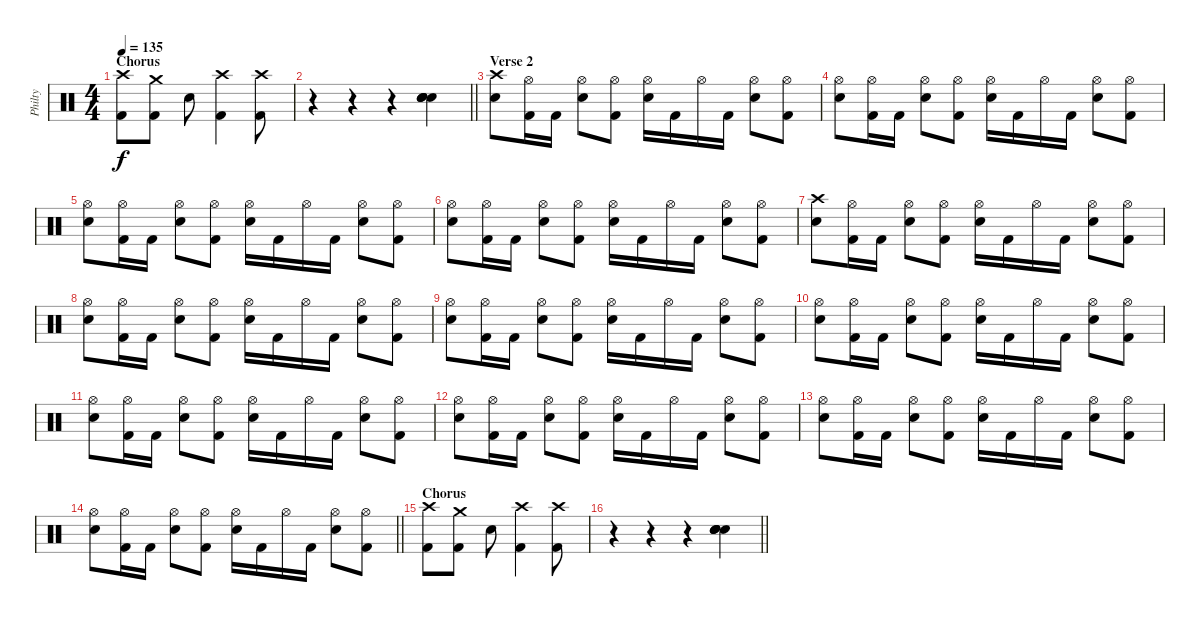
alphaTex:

\track ("Philty" "Philty") {instrument percussion}
\staff {score}
\articulation defaults
\ts (4 4)
\section ("" "Chorus")
\tempo 135
\clef neutral
\ks c
("Crash high (hit)" "Kick (hit) 2").8{dy f} ("Crash medium (hit)" "Kick (hit) 2").8 "Electric Snare (hit)".8 ("Crash high (hit)" "Kick (hit) 2").4 ("Crash high (hit)" "Kick (hit) 2").8 |
\barLineRight lightlight
r.4 r.4 r.4 ("Electric Snare (hit)" "Electric Snare (hit)" "Electric Snare (hit)" "Snare (hit) 2").4 |
\section ("" "Verse 2")
("Crash high (hit)" "Electric Snare (hit)").8 ("Hi-Hat (open)" "Kick (hit) 2").16 "Kick (hit) 2".16 ("Hi-Hat (open)" "Electric Snare (hit)").8 ("Hi-Hat (open)" "Kick (hit) 2").8 ("Hi-Hat (open)" "Electric Snare (hit)").16 "Kick (hit) 2".16 "Hi-Hat (open)".16 "Kick (hit) 2".16 ("Hi-Hat (open)" "Electric Snare (hit)").8 ("Hi-Hat (open)" "Kick (hit) 2").8 |
("Hi-Hat (open)" "Electric Snare (hit)").8 ("Hi-Hat (open)" "Kick (hit) 2").16 "Kick (hit) 2".16 ("Hi-Hat (open)" "Electric Snare (hit)").8 ("Hi-Hat (open)" "Kick (hit) 2").8 ("Hi-Hat (open)" "Electric Snare (hit)").16 "Kick (hit) 2".16 "Hi-Hat (open)".16 "Kick (hit) 2".16 ("Hi-Hat (open)" "Electric Snare (hit)").8 ("Hi-Hat (open)" "Kick (hit) 2").8 |
("Hi-Hat (open)" "Electric Snare (hit)").8 ("Hi-Hat (open)" "Kick (hit) 2").16 "Kick (hit) 2".16 ("Hi-Hat (open)" "Electric Snare (hit)").8 ("Hi-Hat (open)" "Kick (hit) 2").8 ("Hi-Hat (open)" "Electric Snare (hit)").16 "Kick (hit) 2".16 "Hi-Hat (open)".16 "Kick (hit) 2".16 ("Hi-Hat (open)" "Electric Snare (hit)").8 ("Hi-Hat (open)" "Kick (hit) 2").8 |
("Hi-Hat (open)" "Electric Snare (hit)").8 ("Hi-Hat (open)" "Kick (hit) 2").16 "Kick (hit) 2".16 ("Hi-Hat (open)" "Electric Snare (hit)").8 ("Hi-Hat (open)" "Kick (hit) 2").8 ("Hi-Hat (open)" "Electric Snare (hit)").16 "Kick (hit) 2".16 "Hi-Hat (open)".16 "Kick (hit) 2".16 ("Hi-Hat (open)" "Electric Snare (hit)").8 ("Hi-Hat (open)" "Kick (hit) 2").8 |
("Crash high (hit)" "Electric Snare (hit)").8 ("Hi-Hat (open)" "Kick (hit) 2").16 "Kick (hit) 2".16 ("Hi-Hat (open)" "Electric Snare (hit)").8 ("Hi-Hat (open)" "Kick (hit) 2").8 ("Hi-Hat (open)" "Electric Snare (hit)").16 "Kick (hit) 2".16 "Hi-Hat (open)".16 "Kick (hit) 2".16 ("Hi-Hat (open)" "Electric Snare (hit)").8 ("Hi-Hat (open)" "Kick (hit) 2").8 |
("Hi-Hat (open)" "Electric Snare (hit)").8 ("Hi-Hat (open)" "Kick (hit) 2").16 "Kick (hit) 2".16 ("Hi-Hat (open)" "Electric Snare (hit)").8 ("Hi-Hat (open)" "Kick (hit) 2").8 ("Hi-Hat (open)" "Electric Snare (hit)").16 "Kick (hit) 2".16 "Hi-Hat (open)".16 "Kick (hit) 2".16 ("Hi-Hat (open)" "Electric Snare (hit)").8 ("Hi-Hat (open)" "Kick (hit) 2").8 |
("Hi-Hat (open)" "Electric Snare (hit)").8 ("Hi-Hat (open)" "Kick (hit) 2").16 "Kick (hit) 2".16 ("Hi-Hat (open)" "Electric Snare (hit)").8 ("Hi-Hat (open)" "Kick (hit) 2").8 ("Hi-Hat (open)" "Electric Snare (hit)").16 "Kick (hit) 2".16 "Hi-Hat (open)".16 "Kick (hit) 2".16 ("Hi-Hat (open)" "Electric Snare (hit)").8 ("Hi-Hat (open)" "Kick (hit) 2").8 |
("Hi-Hat (open)" "Electric Snare (hit)").8 ("Hi-Hat (open)" "Kick (hit) 2").16 "Kick (hit) 2".16 ("Hi-Hat (open)" "Electric Snare (hit)").8 ("Hi-Hat (open)" "Kick (hit) 2").8 ("Hi-Hat (open)" "Electric Snare (hit)").16 "Kick (hit) 2".16 "Hi-Hat (open)".16 "Kick (hit) 2".16 ("Hi-Hat (open)" "Electric Snare (hit)").8 ("Hi-Hat (open)" "Kick (hit) 2").8 |
("Hi-Hat (open)" "Electric Snare (hit)").8 ("Hi-Hat (open)" "Kick (hit) 2").16 "Kick (hit) 2".16 ("Hi-Hat (open)" "Electric Snare (hit)").8 ("Hi-Hat (open)" "Kick (hit) 2").8 ("Hi-Hat (open)" "Electric Snare (hit)").16 "Kick (hit) 2".16 "Hi-Hat (open)".16 "Kick (hit) 2".16 ("Hi-Hat (open)" "Electric Snare (hit)").8 ("Hi-Hat (open)" "Kick (hit) 2").8 |
("Hi-Hat (open)" "Electric Snare (hit)").8 ("Hi-Hat (open)" "Kick (hit) 2").16 "Kick (hit) 2".16 ("Hi-Hat (open)" "Electric Snare (hit)").8 ("Hi-Hat (open)" "Kick (hit) 2").8 ("Hi-Hat (open)" "Electric Snare (hit)").16 "Kick (hit) 2".16 "Hi-Hat (open)".16 "Kick (hit) 2".16 ("Hi-Hat (open)" "Electric Snare (hit)").8 ("Hi-Hat (open)" "Kick (hit) 2").8 |
("Hi-Hat (open)" "Electric Snare (hit)").8 ("Hi-Hat (open)" "Kick (hit) 2").16 "Kick (hit) 2".16 ("Hi-Hat (open)" "Electric Snare (hit)").8 ("Hi-Hat (open)" "Kick (hit) 2").8 ("Hi-Hat (open)" "Electric Snare (hit)").16 "Kick (hit) 2".16 "Hi-Hat (open)".16 "Kick (hit) 2".16 ("Hi-Hat (open)" "Electric Snare (hit)").8 ("Hi-Hat (open)" "Kick (hit) 2").8 |
\barLineRight lightlight
("Hi-Hat (open)" "Electric Snare (hit)").8 ("Hi-Hat (open)" "Kick (hit) 2").16 "Kick (hit) 2".16 ("Hi-Hat (open)" "Electric Snare (hit)").8 ("Hi-Hat (open)" "Kick (hit) 2").8 ("Hi-Hat (open)" "Electric Snare (hit)").16 "Kick (hit) 2".16 "Hi-Hat (open)".16 "Kick (hit) 2".16 ("Hi-Hat (open)" "Electric Snare (hit)").8 ("Hi-Hat (open)" "Kick (hit) 2").8 |
\section ("" "Chorus")
("Crash high (hit)" "Kick (hit) 2").8 ("Crash medium (hit)" "Kick (hit) 2").8 "Electric Snare (hit)".8 ("Crash high (hit)" "Kick (hit) 2").4 ("Crash high (hit)" "Kick (hit) 2").8 |
\barLineRight lightlight
r.4 r.4 r.4 ("Electric Snare (hit)" "Electric Snare (hit)" "Electric Snare (hit)" "Snare (hit) 2").4
